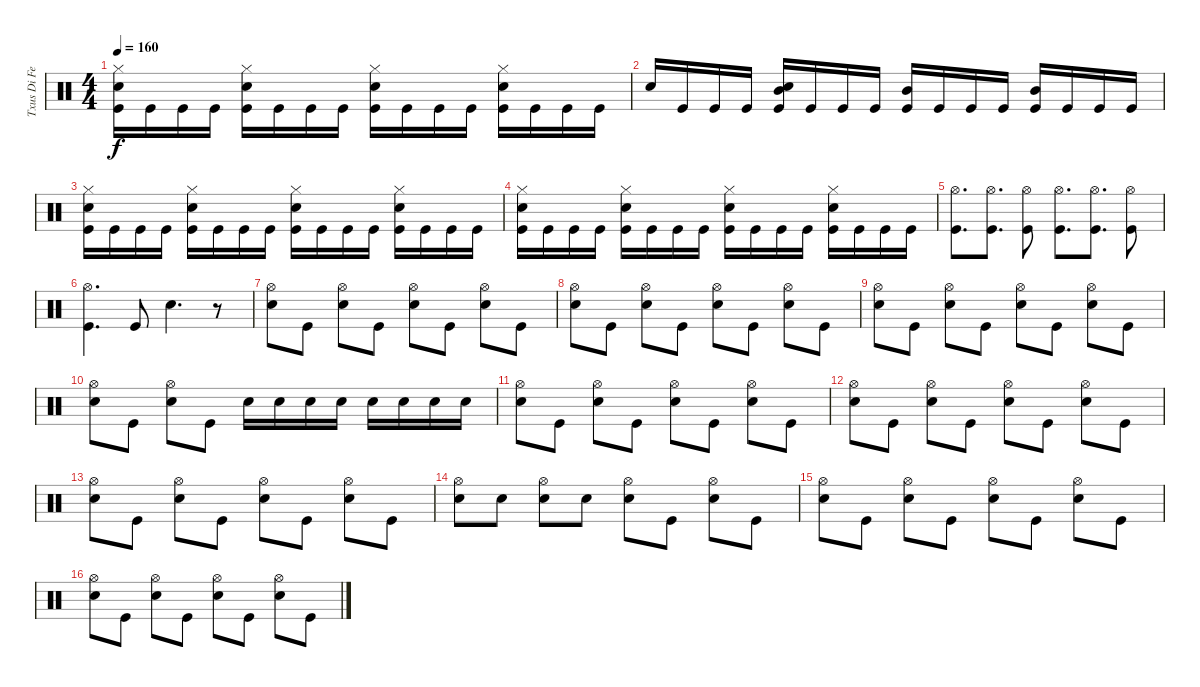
\track ("Txus Di Fellatio" "Txus Di Fe") {instrument percussion}
\staff {score}
\articulation defaults
\ts (4 4)
\tempo 160
\clef neutral
\ks c
("Hi-Hat (closed)" "Snare (hit) 2" "Kick (hit)").16{dy f} "Kick (hit)".16 "Kick (hit)".16 "Kick (hit)".16 ("Hi-Hat (closed)" "Snare (hit) 2" "Kick (hit)").16 "Kick (hit)".16 "Kick (hit)".16 "Kick (hit)".16 ("Hi-Hat (closed)" "Snare (hit) 2" "Kick (hit)").16 "Kick (hit)".16 "Kick (hit)".16 "Kick (hit)".16 ("Hi-Hat (closed)" "Snare (hit) 2" "Kick (hit)").16 "Kick (hit)".16 "Kick (hit)".16 "Kick (hit)".16 |
"Snare (hit) 2".16 "Kick (hit)".16 "Kick (hit)".16 "Kick (hit)".16 ("Snare (hit) 2" "Kick (hit)" "Mid Tom (hit)").16 "Kick (hit)".16 "Kick (hit)".16 "Kick (hit)".16 ("Kick (hit)" "Mid Tom (hit)").16 "Kick (hit)".16 "Kick (hit)".16 "Kick (hit)".16 ("Kick (hit)" "Mid Tom (hit)").16 "Kick (hit)".16 "Kick (hit)".16 "Kick (hit)".16 |
("Hi-Hat (closed)" "Snare (hit) 2" "Kick (hit)").16 "Kick (hit)".16 "Kick (hit)".16 "Kick (hit)".16 ("Hi-Hat (closed)" "Snare (hit) 2" "Kick (hit)").16 "Kick (hit)".16 "Kick (hit)".16 "Kick (hit)".16 ("Hi-Hat (closed)" "Snare (hit) 2" "Kick (hit)").16 "Kick (hit)".16 "Kick (hit)".16 "Kick (hit)".16 ("Hi-Hat (closed)" "Snare (hit) 2" "Kick (hit)").16 "Kick (hit)".16 "Kick (hit)".16 "Kick (hit)".16 |
("Hi-Hat (closed)" "Snare (hit) 2" "Kick (hit)").16 "Kick (hit)".16 "Kick (hit)".16 "Kick (hit)".16 ("Hi-Hat (closed)" "Snare (hit) 2" "Kick (hit)").16 "Kick (hit)".16 "Kick (hit)".16 "Kick (hit)".16 ("Hi-Hat (closed)" "Snare (hit) 2" "Kick (hit)").16 "Kick (hit)".16 "Kick (hit)".16 "Kick (hit)".16 ("Hi-Hat (closed)" "Snare (hit) 2" "Kick (hit)").16 "Kick (hit)".16 "Kick (hit)".16 "Kick (hit)".16 |
("Hi-Hat (open)" "Kick (hit)").8{d} ("Hi-Hat (open)" "Kick (hit)").8{d} ("Hi-Hat (open)" "Kick (hit)").8 ("Hi-Hat (open)" "Kick (hit)").8{d} ("Hi-Hat (open)" "Kick (hit)").8{d} ("Hi-Hat (open)" "Kick (hit)").8 |
("Hi-Hat (open)" "Kick (hit)").4{d} "Kick (hit)".8 "Snare (hit) 2".4{d} r.8 |
("Hi-Hat (open)" "Snare (hit) 2").8 "Kick (hit)".8 ("Hi-Hat (open)" "Snare (hit) 2").8 "Kick (hit)".8 ("Hi-Hat (open)" "Snare (hit) 2").8 "Kick (hit)".8 ("Hi-Hat (open)" "Snare (hit) 2").8 "Kick (hit)".8 |
("Hi-Hat (open)" "Snare (hit) 2").8 "Kick (hit)".8 ("Hi-Hat (open)" "Snare (hit) 2").8 "Kick (hit)".8 ("Hi-Hat (open)" "Snare (hit) 2").8 "Kick (hit)".8 ("Hi-Hat (open)" "Snare (hit) 2").8 "Kick (hit)".8 |
("Hi-Hat (open)" "Snare (hit) 2").8 "Kick (hit)".8 ("Hi-Hat (open)" "Snare (hit) 2").8 "Kick (hit)".8 ("Hi-Hat (open)" "Snare (hit) 2").8 "Kick (hit)".8 ("Hi-Hat (open)" "Snare (hit) 2").8 "Kick (hit)".8 |
("Hi-Hat (open)" "Snare (hit) 2").8 "Kick (hit)".8 ("Hi-Hat (open)" "Snare (hit) 2").8 "Kick (hit)".8 "Snare (hit) 2".16 "Snare (hit) 2".16 "Snare (hit) 2".16 "Snare (hit) 2".16 "Snare (hit) 2".16 "Snare (hit) 2".16 "Snare (hit) 2".16 "Snare (hit) 2".16 |
("Hi-Hat (open)" "Snare (hit) 2").8 "Kick (hit)".8 ("Hi-Hat (open)" "Snare (hit) 2").8 "Kick (hit)".8 ("Hi-Hat (open)" "Snare (hit) 2").8 "Kick (hit)".8 ("Hi-Hat (open)" "Snare (hit) 2").8 "Kick (hit)".8 |
("Hi-Hat (open)" "Snare (hit) 2").8 "Kick (hit)".8 ("Hi-Hat (open)" "Snare (hit) 2").8 "Kick (hit)".8 ("Hi-Hat (open)" "Snare (hit) 2").8 "Kick (hit)".8 ("Hi-Hat (open)" "Snare (hit) 2").8 "Kick (hit)".8 |
("Hi-Hat (open)" "Snare (hit) 2").8 "Kick (hit)".8 ("Hi-Hat (open)" "Snare (hit) 2").8 "Kick (hit)".8 ("Hi-Hat (open)" "Snare (hit) 2").8 "Kick (hit)".8 ("Hi-Hat (open)" "Snare (hit) 2").8 "Kick (hit)".8 |
("Hi-Hat (open)" "Snare (hit) 2").8 "Snare (hit) 2".8 ("Hi-Hat (open)" "Snare (hit) 2").8 "Snare (hit) 2".8 ("Hi-Hat (open)" "Snare (hit) 2").8 "Kick (hit)".8 ("Hi-Hat (open)" "Snare (hit) 2").8 "Kick (hit)".8 |
("Hi-Hat (open)" "Snare (hit) 2").8 "Kick (hit)".8 ("Hi-Hat (open)" "Snare (hit) 2").8 "Kick (hit)".8 ("Hi-Hat (open)" "Snare (hit) 2").8 "Kick (hit)".8 ("Hi-Hat (open)" "Snare (hit) 2").8 "Kick (hit)".8 |
("Hi-Hat (open)" "Snare (hit) 2").8 "Kick (hit)".8 ("Hi-Hat (open)" "Snare (hit) 2").8 "Kick (hit)".8 ("Hi-Hat (open)" "Snare (hit) 2").8 "Kick (hit)".8 ("Hi-Hat (open)" "Snare (hit) 2").8 "Kick (hit)".8
